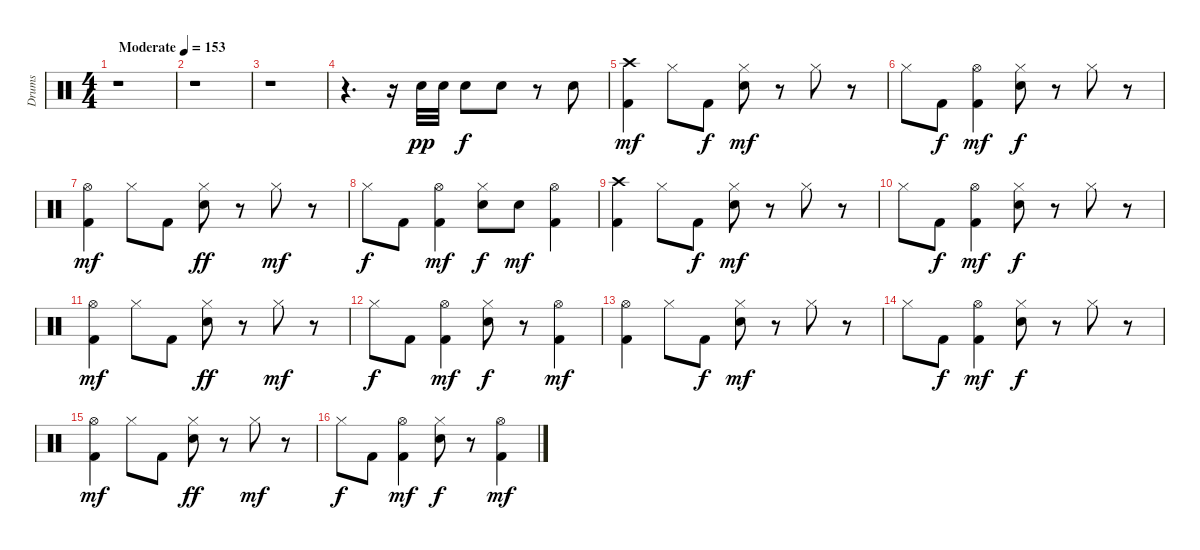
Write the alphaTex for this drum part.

\track ("Drums" "Drums") {instrument percussion}
\staff {score}
\articulation defaults
\ts (4 4)
\tempo (153 "Moderate")
\clef neutral
\ks c
r.1{dy pp} |
r.1 |
r.1 |
r.4{d} r.16 "Electric Snare (hit)".32 "Electric Snare (hit)".32 "Electric Snare (hit)".8{dy f} "Electric Snare (hit)".8 r.8 "Electric Snare (hit)".8 |
("Kick (hit) 2" "Crash high (hit)").4{dy mf} "Hi-Hat (closed)".8 "Kick (hit) 2".8{dy f} ("Electric Snare (hit)" "Hi-Hat (closed)").8{dy mf} r.8 "Hi-Hat (closed)".8 r.8 |
"Hi-Hat (closed)".8 "Kick (hit) 2".8{dy f} ("Kick (hit) 2" "Hi-Hat (open)").4{dy mf} ("Electric Snare (hit)" "Hi-Hat (closed)").8{dy f} r.8 "Hi-Hat (closed)".8 r.8 |
("Kick (hit) 2" "Hi-Hat (open)").4{dy mf} "Hi-Hat (closed)".8 "Kick (hit) 2".8 ("Electric Snare (hit)" "Hi-Hat (closed)").8{dy ff} r.8 "Hi-Hat (closed)".8{dy mf} r.8 |
"Hi-Hat (closed)".8{dy f} "Kick (hit) 2".8 ("Kick (hit) 2" "Hi-Hat (open)").4{dy mf} ("Electric Snare (hit)" "Hi-Hat (closed)").8{dy f} "Electric Snare (hit)".8{dy mf} ("Kick (hit) 2" "Hi-Hat (open)").4 |
("Kick (hit) 2" "Crash high (hit)").4 "Hi-Hat (closed)".8 "Kick (hit) 2".8{dy f} ("Electric Snare (hit)" "Hi-Hat (closed)").8{dy mf} r.8 "Hi-Hat (closed)".8 r.8 |
"Hi-Hat (closed)".8 "Kick (hit) 2".8{dy f} ("Kick (hit) 2" "Hi-Hat (open)").4{dy mf} ("Electric Snare (hit)" "Hi-Hat (closed)").8{dy f} r.8 "Hi-Hat (closed)".8 r.8 |
("Kick (hit) 2" "Hi-Hat (open)").4{dy mf} "Hi-Hat (closed)".8 "Kick (hit) 2".8 ("Electric Snare (hit)" "Hi-Hat (closed)").8{dy ff} r.8 "Hi-Hat (closed)".8{dy mf} r.8 |
"Hi-Hat (closed)".8{dy f} "Kick (hit) 2".8 ("Kick (hit) 2" "Hi-Hat (open)").4{dy mf} ("Electric Snare (hit)" "Hi-Hat (closed)").8{dy f} r.8 ("Kick (hit) 2" "Hi-Hat (open)").4{dy mf} |
("Kick (hit) 2" "Hi-Hat (open)").4 "Hi-Hat (closed)".8 "Kick (hit) 2".8{dy f} ("Electric Snare (hit)" "Hi-Hat (closed)").8{dy mf} r.8 "Hi-Hat (closed)".8 r.8 |
"Hi-Hat (closed)".8 "Kick (hit) 2".8{dy f} ("Kick (hit) 2" "Hi-Hat (open)").4{dy mf} ("Electric Snare (hit)" "Hi-Hat (closed)").8{dy f} r.8 "Hi-Hat (closed)".8 r.8 |
("Kick (hit) 2" "Hi-Hat (open)").4{dy mf} "Hi-Hat (closed)".8 "Kick (hit) 2".8 ("Electric Snare (hit)" "Hi-Hat (closed)").8{dy ff} r.8 "Hi-Hat (closed)".8{dy mf} r.8 |
"Hi-Hat (closed)".8{dy f} "Kick (hit) 2".8 ("Kick (hit) 2" "Hi-Hat (open)").4{dy mf} ("Electric Snare (hit)" "Hi-Hat (closed)").8{dy f} r.8 ("Kick (hit) 2" "Hi-Hat (open)").4{dy mf}
